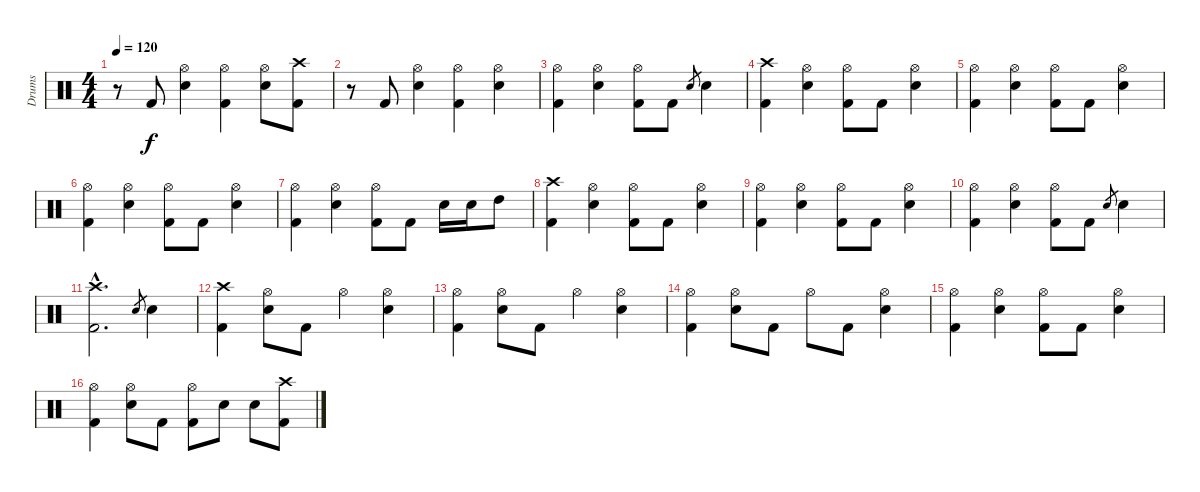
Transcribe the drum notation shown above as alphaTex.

\track ("Drums" "Drums") {instrument percussion}
\staff {score}
\articulation defaults
\ts (4 4)
\tempo 120
\clef neutral
\ks c
r.8{dy f} "Kick (hit) 2".8 ("Hi-Hat (open)" "Electric Snare (hit)").4 ("Hi-Hat (open)" "Kick (hit) 2").4 ("Hi-Hat (open)" "Electric Snare (hit)").8 ("Crash high (hit)" "Kick (hit) 2").8 |
r.8 "Kick (hit) 2".8 ("Hi-Hat (open)" "Electric Snare (hit)").4 ("Hi-Hat (open)" "Kick (hit) 2").4 ("Hi-Hat (open)" "Electric Snare (hit)").4 |
("Hi-Hat (open)" "Kick (hit) 2").4 ("Hi-Hat (open)" "Electric Snare (hit)").4 ("Hi-Hat (open)" "Kick (hit) 2").8 "Kick (hit) 2".8 "Electric Snare (hit)".8{gr} "Electric Snare (hit)".4 |
("Crash high (hit)" "Kick (hit) 2").4 ("Hi-Hat (open)" "Electric Snare (hit)").4 ("Hi-Hat (open)" "Kick (hit) 2").8 "Kick (hit) 2".8 ("Hi-Hat (open)" "Electric Snare (hit)").4 |
("Hi-Hat (open)" "Kick (hit) 2").4 ("Hi-Hat (open)" "Electric Snare (hit)").4 ("Hi-Hat (open)" "Kick (hit) 2").8 "Kick (hit) 2".8 ("Hi-Hat (open)" "Electric Snare (hit)").4 |
("Hi-Hat (open)" "Kick (hit) 2").4 ("Hi-Hat (open)" "Electric Snare (hit)").4 ("Hi-Hat (open)" "Kick (hit) 2").8 "Kick (hit) 2".8 ("Hi-Hat (open)" "Electric Snare (hit)").4 |
("Hi-Hat (open)" "Kick (hit) 2").4 ("Hi-Hat (open)" "Electric Snare (hit)").4 ("Hi-Hat (open)" "Kick (hit) 2").8 "Kick (hit) 2".8 "Electric Snare (hit)".16 "Electric Snare (hit)".16 "High Tom (hit)".8 |
("Crash high (hit)" "Kick (hit) 2").4 ("Hi-Hat (open)" "Electric Snare (hit)").4 ("Hi-Hat (open)" "Kick (hit) 2").8 "Kick (hit) 2".8 ("Hi-Hat (open)" "Electric Snare (hit)").4 |
("Hi-Hat (open)" "Kick (hit) 2").4 ("Hi-Hat (open)" "Electric Snare (hit)").4 ("Hi-Hat (open)" "Kick (hit) 2").8 "Kick (hit) 2".8 ("Hi-Hat (open)" "Electric Snare (hit)").4 |
("Hi-Hat (open)" "Kick (hit) 2").4 ("Hi-Hat (open)" "Electric Snare (hit)").4 ("Hi-Hat (open)" "Kick (hit) 2").8 "Kick (hit) 2".8 "Electric Snare (hit)".8{gr} "Electric Snare (hit)".4 |
("Crash high (hit)"{hac} "Kick (hit) 2"{hac}).2{d} "Electric Snare (hit)".8{gr} "Electric Snare (hit)".4 |
("Crash high (hit)" "Kick (hit) 2").4 ("Hi-Hat (open)" "Electric Snare (hit)").8 "Kick (hit) 2".8 "Hi-Hat (open)".4 ("Hi-Hat (open)" "Electric Snare (hit)").4 |
("Hi-Hat (open)" "Kick (hit) 2").4 ("Hi-Hat (open)" "Electric Snare (hit)").8 "Kick (hit) 2".8 "Hi-Hat (open)".4 ("Hi-Hat (open)" "Electric Snare (hit)").4 |
("Hi-Hat (open)" "Kick (hit) 2").4 ("Hi-Hat (open)" "Electric Snare (hit)").8 "Kick (hit) 2".8 "Hi-Hat (open)".8 "Kick (hit) 2".8 ("Hi-Hat (open)" "Electric Snare (hit)").4 |
("Hi-Hat (open)" "Kick (hit) 2").4 ("Hi-Hat (open)" "Electric Snare (hit)").4 ("Hi-Hat (open)" "Kick (hit) 2").8 "Kick (hit) 2".8 ("Hi-Hat (open)" "Electric Snare (hit)").4 |
("Hi-Hat (open)" "Kick (hit) 2").4 ("Hi-Hat (open)" "Electric Snare (hit)").8 "Kick (hit) 2".8 ("Hi-Hat (open)" "Kick (hit) 2").8 "Electric Snare (hit)".8 "Electric Snare (hit)".8 ("Crash high (hit)" "Kick (hit) 2").8
